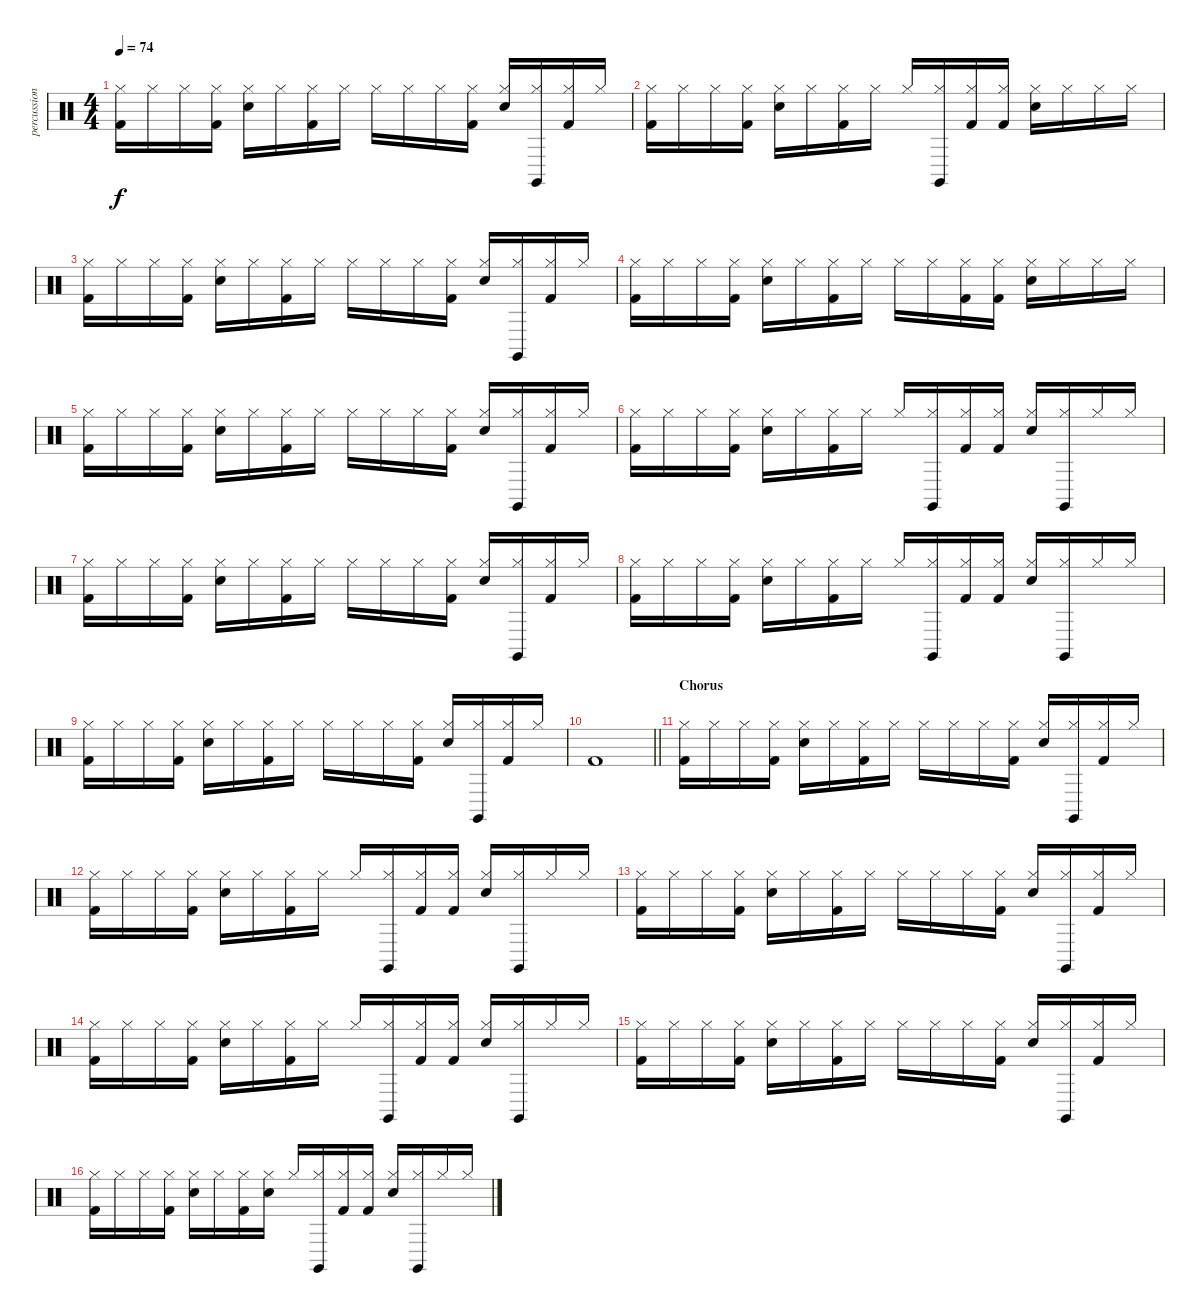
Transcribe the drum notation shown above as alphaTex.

\track ("percussion" "percussion") {instrument percussion}
\staff {score}
\articulation defaults
\ts (4 4)
\tempo 74
\clef neutral
\ks c
("Hi-Hat (closed)" "Kick (hit) 2").16{dy f} "Hi-Hat (closed)".16 "Hi-Hat (closed)".16 ("Hi-Hat (closed)" "Kick (hit) 2").16 ("Snare (hit) 2" "Hi-Hat (closed)").16 "Hi-Hat (closed)".16 ("Hi-Hat (closed)" "Kick (hit) 2").16 "Hi-Hat (closed)".16 "Hi-Hat (closed)".16 "Hi-Hat (closed)".16 "Hi-Hat (closed)".16 ("Hi-Hat (closed)" "Kick (hit) 2").16 ("Snare (hit) 2" "Hi-Hat (closed)").16 ("Claves (hit)" "Hi-Hat (closed)").16 ("Hi-Hat (closed)" "Kick (hit) 2").16 "Hi-Hat (closed)".16 |
("Hi-Hat (closed)" "Kick (hit) 2").16 "Hi-Hat (closed)".16 "Hi-Hat (closed)".16 ("Hi-Hat (closed)" "Kick (hit) 2").16 ("Snare (hit) 2" "Hi-Hat (closed)").16 "Hi-Hat (closed)".16 ("Hi-Hat (closed)" "Kick (hit) 2").16 "Hi-Hat (closed)".16 "Hi-Hat (closed)".16 ("Claves (hit)" "Hi-Hat (closed)").16 ("Hi-Hat (closed)" "Kick (hit) 2").16 ("Hi-Hat (closed)" "Kick (hit) 2").16 ("Snare (hit) 2" "Hi-Hat (closed)").16 "Hi-Hat (closed)".16 "Hi-Hat (closed)".16 "Hi-Hat (closed)".16 |
("Hi-Hat (closed)" "Kick (hit) 2").16 "Hi-Hat (closed)".16 "Hi-Hat (closed)".16 ("Hi-Hat (closed)" "Kick (hit) 2").16 ("Snare (hit) 2" "Hi-Hat (closed)").16 "Hi-Hat (closed)".16 ("Hi-Hat (closed)" "Kick (hit) 2").16 "Hi-Hat (closed)".16 "Hi-Hat (closed)".16 "Hi-Hat (closed)".16 "Hi-Hat (closed)".16 ("Hi-Hat (closed)" "Kick (hit) 2").16 ("Snare (hit) 2" "Hi-Hat (closed)").16 ("Claves (hit)" "Hi-Hat (closed)").16 ("Hi-Hat (closed)" "Kick (hit) 2").16 "Hi-Hat (closed)".16 |
("Hi-Hat (closed)" "Kick (hit) 2").16 "Hi-Hat (closed)".16 "Hi-Hat (closed)".16 ("Hi-Hat (closed)" "Kick (hit) 2").16 ("Snare (hit) 2" "Hi-Hat (closed)").16 "Hi-Hat (closed)".16 ("Hi-Hat (closed)" "Kick (hit) 2").16 "Hi-Hat (closed)".16 "Hi-Hat (closed)".16 "Hi-Hat (closed)".16 ("Hi-Hat (closed)" "Kick (hit) 2").16 ("Hi-Hat (closed)" "Kick (hit) 2").16 ("Snare (hit) 2" "Hi-Hat (closed)").16 "Hi-Hat (closed)".16 "Hi-Hat (closed)".16 "Hi-Hat (closed)".16 |
("Hi-Hat (closed)" "Kick (hit) 2").16 "Hi-Hat (closed)".16 "Hi-Hat (closed)".16 ("Hi-Hat (closed)" "Kick (hit) 2").16 ("Snare (hit) 2" "Hi-Hat (closed)").16 "Hi-Hat (closed)".16 ("Hi-Hat (closed)" "Kick (hit) 2").16 "Hi-Hat (closed)".16 "Hi-Hat (closed)".16 "Hi-Hat (closed)".16 "Hi-Hat (closed)".16 ("Hi-Hat (closed)" "Kick (hit) 2").16 ("Snare (hit) 2" "Hi-Hat (closed)").16 ("Claves (hit)" "Hi-Hat (closed)").16 ("Hi-Hat (closed)" "Kick (hit) 2").16 "Hi-Hat (closed)".16 |
("Hi-Hat (closed)" "Kick (hit) 2").16 "Hi-Hat (closed)".16 "Hi-Hat (closed)".16 ("Hi-Hat (closed)" "Kick (hit) 2").16 ("Snare (hit) 2" "Hi-Hat (closed)").16 "Hi-Hat (closed)".16 ("Hi-Hat (closed)" "Kick (hit) 2").16 "Hi-Hat (closed)".16 "Hi-Hat (closed)".16 ("Claves (hit)" "Hi-Hat (closed)").16 ("Hi-Hat (closed)" "Kick (hit) 2").16 ("Hi-Hat (closed)" "Kick (hit) 2").16 ("Snare (hit) 2" "Hi-Hat (closed)").16 ("Claves (hit)" "Hi-Hat (closed)").16 "Hi-Hat (closed)".16 "Hi-Hat (closed)".16 |
("Hi-Hat (closed)" "Kick (hit) 2").16 "Hi-Hat (closed)".16 "Hi-Hat (closed)".16 ("Hi-Hat (closed)" "Kick (hit) 2").16 ("Snare (hit) 2" "Hi-Hat (closed)").16 "Hi-Hat (closed)".16 ("Hi-Hat (closed)" "Kick (hit) 2").16 "Hi-Hat (closed)".16 "Hi-Hat (closed)".16 "Hi-Hat (closed)".16 "Hi-Hat (closed)".16 ("Hi-Hat (closed)" "Kick (hit) 2").16 ("Snare (hit) 2" "Hi-Hat (closed)").16 ("Claves (hit)" "Hi-Hat (closed)").16 ("Hi-Hat (closed)" "Kick (hit) 2").16 "Hi-Hat (closed)".16 |
("Hi-Hat (closed)" "Kick (hit) 2").16 "Hi-Hat (closed)".16 "Hi-Hat (closed)".16 ("Hi-Hat (closed)" "Kick (hit) 2").16 ("Snare (hit) 2" "Hi-Hat (closed)").16 "Hi-Hat (closed)".16 ("Hi-Hat (closed)" "Kick (hit) 2").16 "Hi-Hat (closed)".16 "Hi-Hat (closed)".16 ("Claves (hit)" "Hi-Hat (closed)").16 ("Hi-Hat (closed)" "Kick (hit) 2").16 ("Hi-Hat (closed)" "Kick (hit) 2").16 ("Snare (hit) 2" "Hi-Hat (closed)").16 ("Claves (hit)" "Hi-Hat (closed)").16 "Hi-Hat (closed)".16 "Hi-Hat (closed)".16 |
("Hi-Hat (closed)" "Kick (hit) 2").16 "Hi-Hat (closed)".16 "Hi-Hat (closed)".16 ("Hi-Hat (closed)" "Kick (hit) 2").16 ("Snare (hit) 2" "Hi-Hat (closed)").16 "Hi-Hat (closed)".16 ("Hi-Hat (closed)" "Kick (hit) 2").16 "Hi-Hat (closed)".16 "Hi-Hat (closed)".16 "Hi-Hat (closed)".16 "Hi-Hat (closed)".16 ("Hi-Hat (closed)" "Kick (hit) 2").16 ("Snare (hit) 2" "Hi-Hat (closed)").16 ("Claves (hit)" "Hi-Hat (closed)").16 ("Hi-Hat (closed)" "Kick (hit) 2").16 "Hi-Hat (closed)".16 |
\barLineRight lightlight "Kick (hit) 2".1
|
\section ("" "Chorus")
("Hi-Hat (closed)" "Kick (hit) 2").16 "Hi-Hat (closed)".16 "Hi-Hat (closed)".16 ("Hi-Hat (closed)" "Kick (hit) 2").16 ("Snare (hit) 2" "Hi-Hat (closed)").16 "Hi-Hat (closed)".16 ("Hi-Hat (closed)" "Kick (hit) 2").16 "Hi-Hat (closed)".16 "Hi-Hat (closed)".16 "Hi-Hat (closed)".16 "Hi-Hat (closed)".16 ("Hi-Hat (closed)" "Kick (hit) 2").16 ("Snare (hit) 2" "Hi-Hat (closed)").16 ("Claves (hit)" "Hi-Hat (closed)").16 ("Hi-Hat (closed)" "Kick (hit) 2").16 "Hi-Hat (closed)".16 |
("Hi-Hat (closed)" "Kick (hit) 2").16 "Hi-Hat (closed)".16 "Hi-Hat (closed)".16 ("Hi-Hat (closed)" "Kick (hit) 2").16 ("Snare (hit) 2" "Hi-Hat (closed)").16 "Hi-Hat (closed)".16 ("Hi-Hat (closed)" "Kick (hit) 2").16 "Hi-Hat (closed)".16 "Hi-Hat (closed)".16 ("Claves (hit)" "Hi-Hat (closed)").16 ("Hi-Hat (closed)" "Kick (hit) 2").16 ("Hi-Hat (closed)" "Kick (hit) 2").16 ("Snare (hit) 2" "Hi-Hat (closed)").16 ("Claves (hit)" "Hi-Hat (closed)").16 "Hi-Hat (closed)".16 "Hi-Hat (closed)".16 |
("Hi-Hat (closed)" "Kick (hit) 2").16 "Hi-Hat (closed)".16 "Hi-Hat (closed)".16 ("Hi-Hat (closed)" "Kick (hit) 2").16 ("Snare (hit) 2" "Hi-Hat (closed)").16 "Hi-Hat (closed)".16 ("Hi-Hat (closed)" "Kick (hit) 2").16 "Hi-Hat (closed)".16 "Hi-Hat (closed)".16 "Hi-Hat (closed)".16 "Hi-Hat (closed)".16 ("Hi-Hat (closed)" "Kick (hit) 2").16 ("Snare (hit) 2" "Hi-Hat (closed)").16 ("Claves (hit)" "Hi-Hat (closed)").16 ("Hi-Hat (closed)" "Kick (hit) 2").16 "Hi-Hat (closed)".16 |
("Hi-Hat (closed)" "Kick (hit) 2").16 "Hi-Hat (closed)".16 "Hi-Hat (closed)".16 ("Hi-Hat (closed)" "Kick (hit) 2").16 ("Snare (hit) 2" "Hi-Hat (closed)").16 "Hi-Hat (closed)".16 ("Hi-Hat (closed)" "Kick (hit) 2").16 "Hi-Hat (closed)".16 "Hi-Hat (closed)".16 ("Claves (hit)" "Hi-Hat (closed)").16 ("Hi-Hat (closed)" "Kick (hit) 2").16 ("Hi-Hat (closed)" "Kick (hit) 2").16 ("Snare (hit) 2" "Hi-Hat (closed)").16 ("Claves (hit)" "Hi-Hat (closed)").16 "Hi-Hat (closed)".16 "Hi-Hat (closed)".16 |
("Hi-Hat (closed)" "Kick (hit) 2").16 "Hi-Hat (closed)".16 "Hi-Hat (closed)".16 ("Hi-Hat (closed)" "Kick (hit) 2").16 ("Snare (hit) 2" "Hi-Hat (closed)").16 "Hi-Hat (closed)".16 ("Hi-Hat (closed)" "Kick (hit) 2").16 "Hi-Hat (closed)".16 "Hi-Hat (closed)".16 "Hi-Hat (closed)".16 "Hi-Hat (closed)".16 ("Hi-Hat (closed)" "Kick (hit) 2").16 ("Snare (hit) 2" "Hi-Hat (closed)").16 ("Claves (hit)" "Hi-Hat (closed)").16 ("Hi-Hat (closed)" "Kick (hit) 2").16 "Hi-Hat (closed)".16 |
("Hi-Hat (closed)" "Kick (hit) 2").16 "Hi-Hat (closed)".16 "Hi-Hat (closed)".16 ("Hi-Hat (closed)" "Kick (hit) 2").16 ("Snare (hit) 2" "Hi-Hat (closed)").16 "Hi-Hat (closed)".16 ("Hi-Hat (closed)" "Kick (hit) 2").16 ("Snare (hit) 2" "Hi-Hat (closed)").16 "Hi-Hat (closed)".16 ("Claves (hit)" "Hi-Hat (closed)").16 ("Hi-Hat (closed)" "Kick (hit) 2").16 ("Hi-Hat (closed)" "Kick (hit) 2").16 ("Snare (hit) 2" "Hi-Hat (closed)").16 ("Claves (hit)" "Hi-Hat (closed)").16 "Hi-Hat (closed)".16 "Hi-Hat (closed)".16
